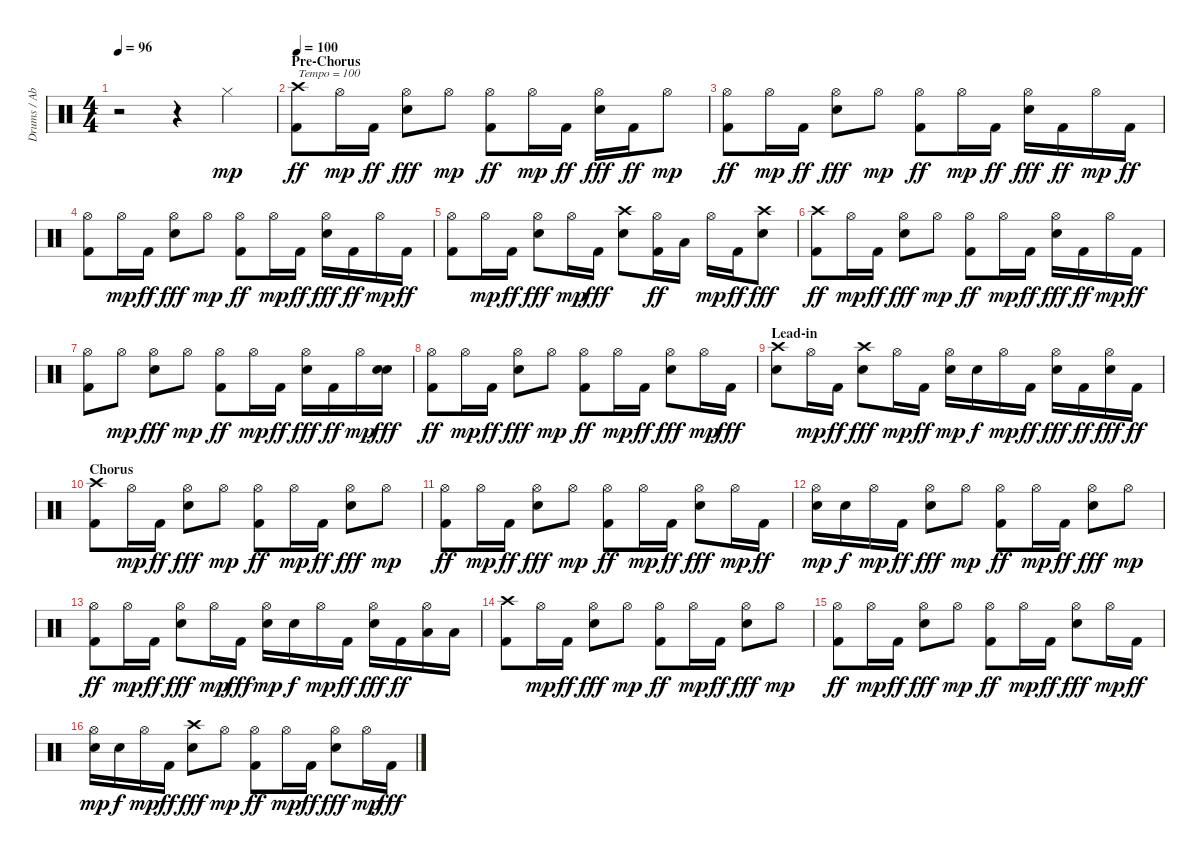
\track ("Drums / Abe Cunningham" "Drums / Ab") {instrument percussion}
\staff {score}
\articulation defaults
\ts (4 4)
\tempo 96
\clef neutral
\ks c
r.2{dy mp} r.4 "Hi-Hat (closed)".4 |
\section ("" "Pre-Chorus")
\tempo 100
("Crash high (hit)" "Kick (hit) 2").8{txt "Tempo = 100" dy ff} "Hi-Hat (open)".16{dy mp} "Kick (hit) 2".16{dy ff} ("Hi-Hat (open)" "Electric Snare (hit)").8{dy fff} "Hi-Hat (open)".8{dy mp} ("Hi-Hat (open)" "Kick (hit) 2").8{dy ff} "Hi-Hat (open)".16{dy mp} "Kick (hit) 2".16{dy ff} ("Hi-Hat (open)" "Electric Snare (hit)").16{dy fff} "Kick (hit) 2".16{dy ff} "Hi-Hat (open)".8{dy mp} |
("Hi-Hat (open)" "Kick (hit) 2").8{dy ff} "Hi-Hat (open)".16{dy mp} "Kick (hit) 2".16{dy ff} ("Hi-Hat (open)" "Electric Snare (hit)").8{dy fff} "Hi-Hat (open)".8{dy mp} ("Hi-Hat (open)" "Kick (hit) 2").8{dy ff} "Hi-Hat (open)".16{dy mp} "Kick (hit) 2".16{dy ff} ("Hi-Hat (open)" "Electric Snare (hit)").16{dy fff} "Kick (hit) 2".16{dy ff} "Hi-Hat (open)".16{dy mp} "Kick (hit) 2".16{dy ff} |
("Hi-Hat (open)" "Kick (hit) 2").8 "Hi-Hat (open)".16{dy mp} "Kick (hit) 2".16{dy ff} ("Hi-Hat (open)" "Electric Snare (hit)").8{dy fff} "Hi-Hat (open)".8{dy mp} ("Hi-Hat (open)" "Kick (hit) 2").8{dy ff} "Hi-Hat (open)".16{dy mp} "Kick (hit) 2".16{dy ff} ("Hi-Hat (open)" "Electric Snare (hit)").16{dy fff} "Kick (hit) 2".16{dy ff} "Hi-Hat (open)".16{dy mp} "Kick (hit) 2".16{dy ff} |
("Hi-Hat (open)" "Kick (hit) 2").8 "Hi-Hat (open)".16{dy mp} "Kick (hit) 2".16{dy ff} ("Hi-Hat (open)" "Electric Snare (hit)").8{dy fff} "Hi-Hat (open)".16{dy mp} "Kick (hit) 2".16{dy fff} ("Crash high (hit)" "Electric Snare (hit)").8 ("Hi-Hat (open)" "Kick (hit) 2").16{dy ff} "Low Tom (hit)".16 "Hi-Hat (open)".16{dy mp} "Kick (hit) 2".16{dy ff} ("Crash high (hit)" "Electric Snare (hit)").8{dy fff} |
("Crash high (hit)" "Kick (hit) 2").8{dy ff} "Hi-Hat (open)".16{dy mp} "Kick (hit) 2".16{dy ff} ("Hi-Hat (open)" "Electric Snare (hit)").8{dy fff} "Hi-Hat (open)".8{dy mp} ("Hi-Hat (open)" "Kick (hit) 2").8{dy ff} "Hi-Hat (open)".16{dy mp} "Kick (hit) 2".16{dy ff} ("Hi-Hat (open)" "Electric Snare (hit)").16{dy fff} "Kick (hit) 2".16{dy ff} "Hi-Hat (open)".16{dy mp} "Kick (hit) 2".16{dy ff} |
("Hi-Hat (open)" "Kick (hit) 2").8 "Hi-Hat (open)".8{dy mp} ("Hi-Hat (open)" "Electric Snare (hit)").8{dy fff} "Hi-Hat (open)".8{dy mp} ("Hi-Hat (open)" "Kick (hit) 2").8{dy ff} "Hi-Hat (open)".16{dy mp} "Kick (hit) 2".16{dy ff} ("Hi-Hat (open)" "Electric Snare (hit)").16{dy fff} "Kick (hit) 2".16{dy ff} "Hi-Hat (open)".16{dy mp} ("Electric Snare (hit)" "Electric Snare (hit)").16{dy fff} |
("Hi-Hat (open)" "Kick (hit) 2").8{dy ff} "Hi-Hat (open)".16{dy mp} "Kick (hit) 2".16{dy ff} ("Hi-Hat (open)" "Electric Snare (hit)").8{dy fff} "Hi-Hat (open)".8{dy mp} ("Hi-Hat (open)" "Kick (hit) 2").8{dy ff} "Hi-Hat (open)".16{dy mp} "Kick (hit) 2".16{dy ff} ("Hi-Hat (open)" "Electric Snare (hit)").8{dy fff} "Hi-Hat (open)".16{dy mp} "Kick (hit) 2".16{dy fff} |
\section ("" "Lead-in")
("Crash high (hit)" "Electric Snare (hit)").8 "Hi-Hat (open)".16{dy mp} "Kick (hit) 2".16{dy ff} ("Crash high (hit)" "Electric Snare (hit)").8{dy fff} "Hi-Hat (open)".16{dy mp} "Kick (hit) 2".16{dy ff} ("Hi-Hat (open)" "Electric Snare (hit)").16{dy mp} "Electric Snare (hit)".16{dy f} "Hi-Hat (open)".16{dy mp} "Kick (hit) 2".16{dy ff} ("Hi-Hat (open)" "Electric Snare (hit)").16{dy fff} "Kick (hit) 2".16{dy ff} ("Hi-Hat (open)" "Electric Snare (hit)").16{dy fff} "Kick (hit) 2".16{dy ff} |
\section ("" "Chorus")
("Crash high (hit)" "Kick (hit) 2").8 "Hi-Hat (open)".16{dy mp} "Kick (hit) 2".16{dy ff} ("Hi-Hat (open)" "Electric Snare (hit)").8{dy fff} "Hi-Hat (open)".8{dy mp} ("Hi-Hat (open)" "Kick (hit) 2").8{dy ff} "Hi-Hat (open)".16{dy mp} "Kick (hit) 2".16{dy ff} ("Hi-Hat (open)" "Electric Snare (hit)").8{dy fff} "Hi-Hat (open)".8{dy mp} |
("Hi-Hat (open)" "Kick (hit) 2").8{dy ff} "Hi-Hat (open)".16{dy mp} "Kick (hit) 2".16{dy ff} ("Hi-Hat (open)" "Electric Snare (hit)").8{dy fff} "Hi-Hat (open)".8{dy mp} ("Hi-Hat (open)" "Kick (hit) 2").8{dy ff} "Hi-Hat (open)".16{dy mp} "Kick (hit) 2".16{dy ff} ("Hi-Hat (open)" "Electric Snare (hit)").8{dy fff} "Hi-Hat (open)".16{dy mp} "Kick (hit) 2".16{dy ff} |
("Hi-Hat (open)" "Electric Snare (hit)").16{dy mp} "Electric Snare (hit)".16{dy f} "Hi-Hat (open)".16{dy mp} "Kick (hit) 2".16{dy ff} ("Hi-Hat (open)" "Electric Snare (hit)").8{dy fff} "Hi-Hat (open)".8{dy mp} ("Hi-Hat (open)" "Kick (hit) 2").8{dy ff} "Hi-Hat (open)".16{dy mp} "Kick (hit) 2".16{dy ff} ("Hi-Hat (open)" "Electric Snare (hit)").8{dy fff} "Hi-Hat (open)".8{dy mp} |
("Hi-Hat (open)" "Kick (hit) 2").8{dy ff} "Hi-Hat (open)".16{dy mp} "Kick (hit) 2".16{dy ff} ("Hi-Hat (open)" "Electric Snare (hit)").8{dy fff} "Hi-Hat (open)".16{dy mp} "Kick (hit) 2".16{dy fff} ("Hi-Hat (open)" "Electric Snare (hit)").16{dy mp} "Electric Snare (hit)".16{dy f} "Hi-Hat (open)".16{dy mp} "Kick (hit) 2".16{dy ff} ("Hi-Hat (open)" "Electric Snare (hit)").16{dy fff} "Kick (hit) 2".16{dy ff} ("Hi-Hat (open)" "Low Tom (hit)").16 "Low Tom (hit)".16 |
("Crash high (hit)" "Kick (hit) 2").8 "Hi-Hat (open)".16{dy mp} "Kick (hit) 2".16{dy ff} ("Hi-Hat (open)" "Electric Snare (hit)").8{dy fff} "Hi-Hat (open)".8{dy mp} ("Hi-Hat (open)" "Kick (hit) 2").8{dy ff} "Hi-Hat (open)".16{dy mp} "Kick (hit) 2".16{dy ff} ("Hi-Hat (open)" "Electric Snare (hit)").8{dy fff} "Hi-Hat (open)".8{dy mp} |
("Hi-Hat (open)" "Kick (hit) 2").8{dy ff} "Hi-Hat (open)".16{dy mp} "Kick (hit) 2".16{dy ff} ("Hi-Hat (open)" "Electric Snare (hit)").8{dy fff} "Hi-Hat (open)".8{dy mp} ("Hi-Hat (open)" "Kick (hit) 2").8{dy ff} "Hi-Hat (open)".16{dy mp} "Kick (hit) 2".16{dy ff} ("Hi-Hat (open)" "Electric Snare (hit)").8{dy fff} "Hi-Hat (open)".16{dy mp} "Kick (hit) 2".16{dy ff} |
("Hi-Hat (open)" "Electric Snare (hit)").16{dy mp} "Electric Snare (hit)".16{dy f} "Hi-Hat (open)".16{dy mp} "Kick (hit) 2".16{dy ff} ("Crash high (hit)" "Electric Snare (hit)").8{dy fff} "Hi-Hat (open)".8{dy mp} ("Hi-Hat (open)" "Kick (hit) 2").8{dy ff} "Hi-Hat (open)".16{dy mp} "Kick (hit) 2".16{dy ff} ("Hi-Hat (open)" "Electric Snare (hit)").8{dy fff} "Hi-Hat (open)".16{dy mp} "Kick (hit) 2".16{dy fff}
